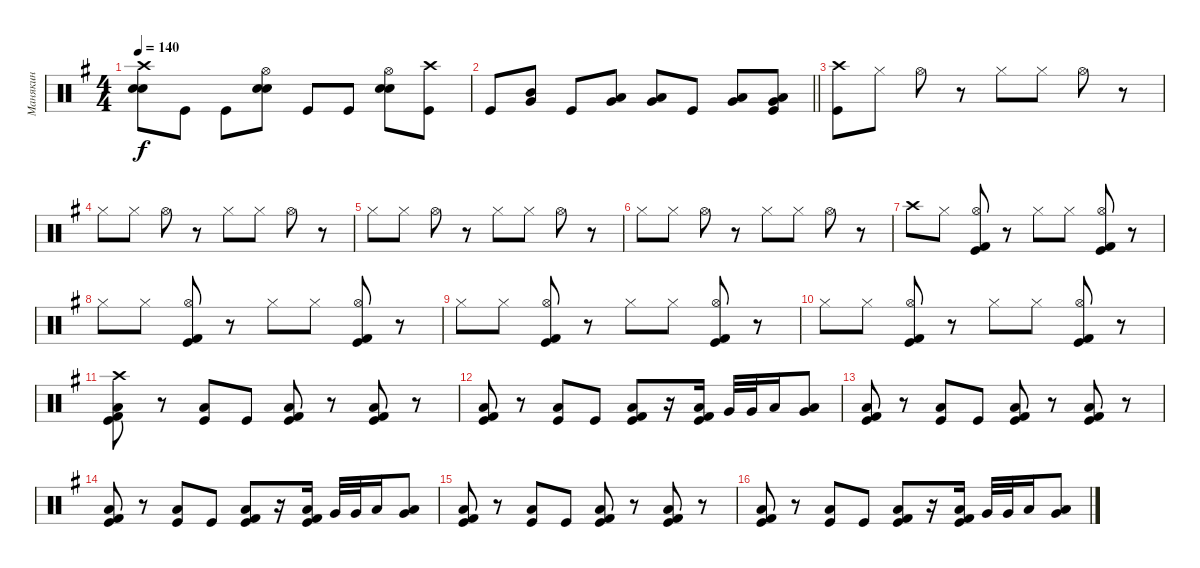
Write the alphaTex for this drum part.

\track ("Манякин" "Манякин") {instrument percussion}
\staff {score}
\articulation defaults
\ts (4 4)
\tempo 140
\clef neutral
\ks g
("Crash high (hit)" "Electric Snare (hit)" "Snare (hit) 2").8{dy f} "Kick (hit)".8 "Kick (hit)".8 ("Hi-Hat (open)" "Electric Snare (hit)" "Snare (hit) 2").8 "Kick (hit)".8 "Kick (hit)".8 ("Hi-Hat (open)" "Electric Snare (hit)" "Snare (hit) 2").8 ("Crash high (hit)" "Kick (hit)").8 |
\barLineRight lightlight "Kick (hit)".8
("Very Low Tom (hit)" "Mid Tom (hit)").8 "Kick (hit)".8 ("Very Low Tom (hit)" "Low Floor Tom (hit)").8 ("Low Tom (hit)" "Very Low Tom (hit)").8 "Kick (hit)".8 ("Very Low Tom (hit)" "Low Floor Tom (hit)").8 ("Low Tom (hit)" "Very Low Tom (hit)" "Kick (hit)").8 |
("Crash high (hit)" "Kick (hit)").8 "Hi-Hat (closed)".8 "Hi-Hat (open)".8 r.8 "Hi-Hat (closed)".8 "Hi-Hat (closed)".8 "Hi-Hat (open)".8 r.8 |
"Hi-Hat (closed)".8 "Hi-Hat (closed)".8 "Hi-Hat (open)".8 r.8 "Hi-Hat (closed)".8 "Hi-Hat (closed)".8 "Hi-Hat (open)".8 r.8 |
"Hi-Hat (closed)".8 "Hi-Hat (closed)".8 "Hi-Hat (open)".8 r.8 "Hi-Hat (closed)".8 "Hi-Hat (closed)".8 "Hi-Hat (open)".8 r.8 |
"Hi-Hat (closed)".8 "Hi-Hat (closed)".8 "Hi-Hat (open)".8 r.8 "Hi-Hat (closed)".8 "Hi-Hat (closed)".8 "Hi-Hat (open)".8 r.8 |
"Crash high (hit)".8 "Hi-Hat (closed)".8 ("Hi-Hat (open)" "Kick (hit) 2" "Kick (hit)").8 r.8 "Hi-Hat (closed)".8 "Hi-Hat (closed)".8 ("Hi-Hat (open)" "Kick (hit) 2" "Kick (hit)").8 r.8 |
"Hi-Hat (closed)".8 "Hi-Hat (closed)".8 ("Hi-Hat (open)" "Kick (hit) 2" "Kick (hit)").8 r.8 "Hi-Hat (closed)".8 "Hi-Hat (closed)".8 ("Hi-Hat (open)" "Kick (hit) 2" "Kick (hit)").8 r.8 |
"Hi-Hat (closed)".8 "Hi-Hat (closed)".8 ("Hi-Hat (open)" "Kick (hit) 2" "Kick (hit)").8 r.8 "Hi-Hat (closed)".8 "Hi-Hat (closed)".8 ("Hi-Hat (open)" "Kick (hit) 2" "Kick (hit)").8 r.8 |
"Hi-Hat (closed)".8 "Hi-Hat (closed)".8 ("Hi-Hat (open)" "Kick (hit) 2" "Kick (hit)").8 r.8 "Hi-Hat (closed)".8 "Hi-Hat (closed)".8 ("Hi-Hat (open)" "Kick (hit) 2" "Kick (hit)").8 r.8 |
("Crash high (hit)" "Kick (hit) 2" "Low Floor Tom (hit)" "Kick (hit)").8 r.8 ("Low Tom (hit)" "Kick (hit)").8 "Kick (hit)".8 ("Kick (hit) 2" "Low Floor Tom (hit)" "Kick (hit)").8 r.8 ("Kick (hit) 2" "Low Tom (hit)" "Kick (hit)").8 r.8 |
("Kick (hit) 2" "Low Floor Tom (hit)" "Kick (hit)").8 r.8 ("Low Tom (hit)" "Kick (hit)").8 "Kick (hit)".8 ("Kick (hit) 2" "Low Floor Tom (hit)" "Kick (hit)").8 r.16 ("Low Tom (hit)" "Kick (hit) 2" "Kick (hit)").16 "Very Low Tom (hit)".32 "Very Low Tom (hit)".32 "Low Floor Tom (hit)".16 ("Low Floor Tom (hit)" "Very Low Tom (hit)").8 |
("Kick (hit) 2" "Low Floor Tom (hit)" "Kick (hit)").8 r.8 ("Low Tom (hit)" "Kick (hit)").8 "Kick (hit)".8 ("Kick (hit) 2" "Low Floor Tom (hit)" "Kick (hit)").8 r.8 ("Kick (hit) 2" "Low Tom (hit)" "Kick (hit)").8 r.8 |
("Kick (hit) 2" "Low Floor Tom (hit)" "Kick (hit)").8 r.8 ("Low Tom (hit)" "Kick (hit)").8 "Kick (hit)".8 ("Kick (hit) 2" "Low Floor Tom (hit)" "Kick (hit)").8 r.16 ("Low Tom (hit)" "Kick (hit) 2" "Kick (hit)").16 "Very Low Tom (hit)".32 "Very Low Tom (hit)".32 "Low Floor Tom (hit)".16 ("Low Floor Tom (hit)" "Very Low Tom (hit)").8 |
("Kick (hit) 2" "Low Floor Tom (hit)" "Kick (hit)").8 r.8 ("Low Tom (hit)" "Kick (hit)").8 "Kick (hit)".8 ("Kick (hit) 2" "Low Floor Tom (hit)" "Kick (hit)").8 r.8 ("Kick (hit) 2" "Low Tom (hit)" "Kick (hit)").8 r.8 |
("Kick (hit) 2" "Low Floor Tom (hit)" "Kick (hit)").8 r.8 ("Low Tom (hit)" "Kick (hit)").8 "Kick (hit)".8 ("Kick (hit) 2" "Low Floor Tom (hit)" "Kick (hit)").8 r.16 ("Low Tom (hit)" "Kick (hit) 2" "Kick (hit)").16 "Very Low Tom (hit)".32 "Very Low Tom (hit)".32 "Low Floor Tom (hit)".16 ("Low Floor Tom (hit)" "Very Low Tom (hit)").8
